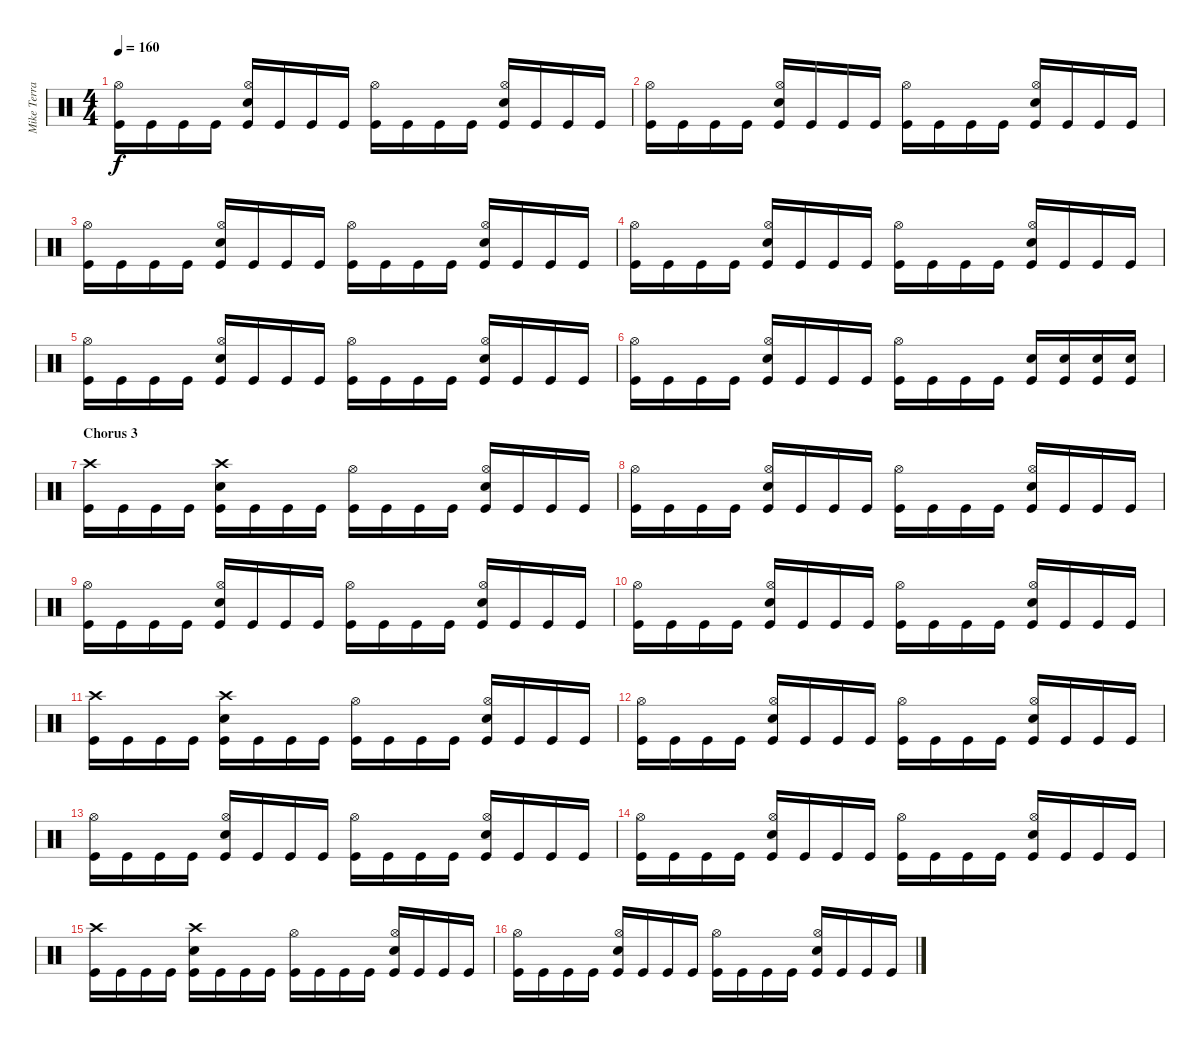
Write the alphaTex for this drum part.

\track ("Mike Terrana - Drums" "Mike Terra") {instrument percussion}
\staff {score}
\articulation defaults
\ts (4 4)
\tempo 160
\clef neutral
\ks c
("Kick (hit)" "Hi-Hat (open)").16{dy f} "Kick (hit)".16 "Kick (hit)".16 "Kick (hit)".16 ("Kick (hit)" "Electric Snare (hit)" "Hi-Hat (open)").16 "Kick (hit)".16 "Kick (hit)".16 "Kick (hit)".16 ("Kick (hit)" "Hi-Hat (open)").16 "Kick (hit)".16 "Kick (hit)".16 "Kick (hit)".16 ("Kick (hit)" "Electric Snare (hit)" "Hi-Hat (open)").16 "Kick (hit)".16 "Kick (hit)".16 "Kick (hit)".16 |
("Kick (hit)" "Hi-Hat (open)").16 "Kick (hit)".16 "Kick (hit)".16 "Kick (hit)".16 ("Kick (hit)" "Electric Snare (hit)" "Hi-Hat (open)").16 "Kick (hit)".16 "Kick (hit)".16 "Kick (hit)".16 ("Kick (hit)" "Hi-Hat (open)").16 "Kick (hit)".16 "Kick (hit)".16 "Kick (hit)".16 ("Kick (hit)" "Electric Snare (hit)" "Hi-Hat (open)").16 "Kick (hit)".16 "Kick (hit)".16 "Kick (hit)".16 |
("Kick (hit)" "Hi-Hat (open)").16 "Kick (hit)".16 "Kick (hit)".16 "Kick (hit)".16 ("Kick (hit)" "Electric Snare (hit)" "Hi-Hat (open)").16 "Kick (hit)".16 "Kick (hit)".16 "Kick (hit)".16 ("Kick (hit)" "Hi-Hat (open)").16 "Kick (hit)".16 "Kick (hit)".16 "Kick (hit)".16 ("Kick (hit)" "Electric Snare (hit)" "Hi-Hat (open)").16 "Kick (hit)".16 "Kick (hit)".16 "Kick (hit)".16 |
("Kick (hit)" "Hi-Hat (open)").16 "Kick (hit)".16 "Kick (hit)".16 "Kick (hit)".16 ("Kick (hit)" "Electric Snare (hit)" "Hi-Hat (open)").16 "Kick (hit)".16 "Kick (hit)".16 "Kick (hit)".16 ("Kick (hit)" "Hi-Hat (open)").16 "Kick (hit)".16 "Kick (hit)".16 "Kick (hit)".16 ("Kick (hit)" "Electric Snare (hit)" "Hi-Hat (open)").16 "Kick (hit)".16 "Kick (hit)".16 "Kick (hit)".16 |
("Kick (hit)" "Hi-Hat (open)").16 "Kick (hit)".16 "Kick (hit)".16 "Kick (hit)".16 ("Kick (hit)" "Electric Snare (hit)" "Hi-Hat (open)").16 "Kick (hit)".16 "Kick (hit)".16 "Kick (hit)".16 ("Kick (hit)" "Hi-Hat (open)").16 "Kick (hit)".16 "Kick (hit)".16 "Kick (hit)".16 ("Kick (hit)" "Electric Snare (hit)" "Hi-Hat (open)").16 "Kick (hit)".16 "Kick (hit)".16 "Kick (hit)".16 |
("Kick (hit)" "Hi-Hat (open)").16 "Kick (hit)".16 "Kick (hit)".16 "Kick (hit)".16 ("Kick (hit)" "Electric Snare (hit)" "Hi-Hat (open)").16 "Kick (hit)".16 "Kick (hit)".16 "Kick (hit)".16 ("Kick (hit)" "Hi-Hat (open)").16 "Kick (hit)".16 "Kick (hit)".16 "Kick (hit)".16 ("Kick (hit)" "Electric Snare (hit)").16 ("Kick (hit)" "Electric Snare (hit)").16 ("Kick (hit)" "Electric Snare (hit)").16 ("Kick (hit)" "Electric Snare (hit)").16 |
\section ("" "Chorus 3")
("Kick (hit)" "Crash high (hit)").16 "Kick (hit)".16 "Kick (hit)".16 "Kick (hit)".16 ("Kick (hit)" "Electric Snare (hit)" "Crash high (hit)").16 "Kick (hit)".16 "Kick (hit)".16 "Kick (hit)".16 ("Kick (hit)" "Hi-Hat (open)").16 "Kick (hit)".16 "Kick (hit)".16 "Kick (hit)".16 ("Kick (hit)" "Electric Snare (hit)" "Hi-Hat (open)").16 "Kick (hit)".16 "Kick (hit)".16 "Kick (hit)".16 |
("Kick (hit)" "Hi-Hat (open)").16 "Kick (hit)".16 "Kick (hit)".16 "Kick (hit)".16 ("Kick (hit)" "Electric Snare (hit)" "Hi-Hat (open)").16 "Kick (hit)".16 "Kick (hit)".16 "Kick (hit)".16 ("Kick (hit)" "Hi-Hat (open)").16 "Kick (hit)".16 "Kick (hit)".16 "Kick (hit)".16 ("Kick (hit)" "Electric Snare (hit)" "Hi-Hat (open)").16 "Kick (hit)".16 "Kick (hit)".16 "Kick (hit)".16 |
("Kick (hit)" "Hi-Hat (open)").16 "Kick (hit)".16 "Kick (hit)".16 "Kick (hit)".16 ("Kick (hit)" "Electric Snare (hit)" "Hi-Hat (open)").16 "Kick (hit)".16 "Kick (hit)".16 "Kick (hit)".16 ("Kick (hit)" "Hi-Hat (open)").16 "Kick (hit)".16 "Kick (hit)".16 "Kick (hit)".16 ("Kick (hit)" "Electric Snare (hit)" "Hi-Hat (open)").16 "Kick (hit)".16 "Kick (hit)".16 "Kick (hit)".16 |
("Kick (hit)" "Hi-Hat (open)").16 "Kick (hit)".16 "Kick (hit)".16 "Kick (hit)".16 ("Kick (hit)" "Electric Snare (hit)" "Hi-Hat (open)").16 "Kick (hit)".16 "Kick (hit)".16 "Kick (hit)".16 ("Kick (hit)" "Hi-Hat (open)").16 "Kick (hit)".16 "Kick (hit)".16 "Kick (hit)".16 ("Kick (hit)" "Electric Snare (hit)" "Hi-Hat (open)").16 "Kick (hit)".16 "Kick (hit)".16 "Kick (hit)".16 |
("Kick (hit)" "Crash high (hit)").16 "Kick (hit)".16 "Kick (hit)".16 "Kick (hit)".16 ("Kick (hit)" "Electric Snare (hit)" "Crash high (hit)").16 "Kick (hit)".16 "Kick (hit)".16 "Kick (hit)".16 ("Kick (hit)" "Hi-Hat (open)").16 "Kick (hit)".16 "Kick (hit)".16 "Kick (hit)".16 ("Kick (hit)" "Electric Snare (hit)" "Hi-Hat (open)").16 "Kick (hit)".16 "Kick (hit)".16 "Kick (hit)".16 |
("Kick (hit)" "Hi-Hat (open)").16 "Kick (hit)".16 "Kick (hit)".16 "Kick (hit)".16 ("Kick (hit)" "Electric Snare (hit)" "Hi-Hat (open)").16 "Kick (hit)".16 "Kick (hit)".16 "Kick (hit)".16 ("Kick (hit)" "Hi-Hat (open)").16 "Kick (hit)".16 "Kick (hit)".16 "Kick (hit)".16 ("Kick (hit)" "Electric Snare (hit)" "Hi-Hat (open)").16 "Kick (hit)".16 "Kick (hit)".16 "Kick (hit)".16 |
("Kick (hit)" "Hi-Hat (open)").16 "Kick (hit)".16 "Kick (hit)".16 "Kick (hit)".16 ("Kick (hit)" "Electric Snare (hit)" "Hi-Hat (open)").16 "Kick (hit)".16 "Kick (hit)".16 "Kick (hit)".16 ("Kick (hit)" "Hi-Hat (open)").16 "Kick (hit)".16 "Kick (hit)".16 "Kick (hit)".16 ("Kick (hit)" "Electric Snare (hit)" "Hi-Hat (open)").16 "Kick (hit)".16 "Kick (hit)".16 "Kick (hit)".16 |
("Kick (hit)" "Hi-Hat (open)").16 "Kick (hit)".16 "Kick (hit)".16 "Kick (hit)".16 ("Kick (hit)" "Electric Snare (hit)" "Hi-Hat (open)").16 "Kick (hit)".16 "Kick (hit)".16 "Kick (hit)".16 ("Kick (hit)" "Hi-Hat (open)").16 "Kick (hit)".16 "Kick (hit)".16 "Kick (hit)".16 ("Kick (hit)" "Electric Snare (hit)" "Hi-Hat (open)").16 "Kick (hit)".16 "Kick (hit)".16 "Kick (hit)".16 |
("Kick (hit)" "Crash high (hit)").16 "Kick (hit)".16 "Kick (hit)".16 "Kick (hit)".16 ("Kick (hit)" "Electric Snare (hit)" "Crash high (hit)").16 "Kick (hit)".16 "Kick (hit)".16 "Kick (hit)".16 ("Kick (hit)" "Hi-Hat (open)").16 "Kick (hit)".16 "Kick (hit)".16 "Kick (hit)".16 ("Kick (hit)" "Electric Snare (hit)" "Hi-Hat (open)").16 "Kick (hit)".16 "Kick (hit)".16 "Kick (hit)".16 |
("Kick (hit)" "Hi-Hat (open)").16 "Kick (hit)".16 "Kick (hit)".16 "Kick (hit)".16 ("Kick (hit)" "Electric Snare (hit)" "Hi-Hat (open)").16 "Kick (hit)".16 "Kick (hit)".16 "Kick (hit)".16 ("Kick (hit)" "Hi-Hat (open)").16 "Kick (hit)".16 "Kick (hit)".16 "Kick (hit)".16 ("Kick (hit)" "Electric Snare (hit)" "Hi-Hat (open)").16 "Kick (hit)".16 "Kick (hit)".16 "Kick (hit)".16
